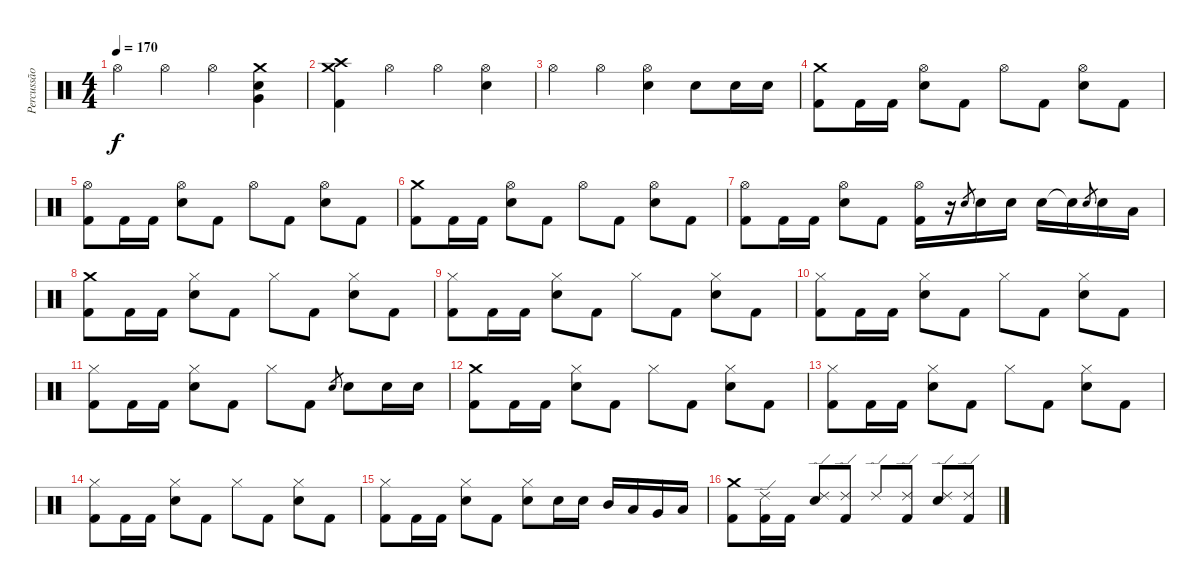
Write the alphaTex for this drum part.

\track ("Percussão" "Percussão") {instrument percussion}
\staff {score}
\articulation defaults
\ts (4 4)
\tempo 170
\clef neutral
\ks c "Hi-Hat (open)".4{dy f} "Hi-Hat (open)".4 "Hi-Hat (open)".4
("Crash medium (hit)" "Electric Snare (hit)" "Very Low Tom (hit)").4 |
("Crash medium (hit)" "Crash high (hit)" "Kick (hit) 2").4 "Hi-Hat (open)".4 "Hi-Hat (open)".4 ("Hi-Hat (open)" "Electric Snare (hit)").4 |
"Hi-Hat (open)".4 "Hi-Hat (open)".4 ("Hi-Hat (open)" "Electric Snare (hit)").4 "Electric Snare (hit)".8 "Electric Snare (hit)".16 "Electric Snare (hit)".16 |
("Crash medium (hit)" "Kick (hit) 2").8 "Kick (hit) 2".16 "Kick (hit) 2".16 ("Hi-Hat (open)" "Electric Snare (hit)").8 "Kick (hit) 2".8 "Hi-Hat (open)".8 "Kick (hit) 2".8 ("Hi-Hat (open)" "Electric Snare (hit)").8 "Kick (hit) 2".8 |
("Hi-Hat (open)" "Kick (hit) 2").8 "Kick (hit) 2".16 "Kick (hit) 2".16 ("Hi-Hat (open)" "Electric Snare (hit)").8 "Kick (hit) 2".8 "Hi-Hat (open)".8 "Kick (hit) 2".8 ("Hi-Hat (open)" "Electric Snare (hit)").8 "Kick (hit) 2".8 |
("Crash medium (hit)" "Kick (hit) 2").8 "Kick (hit) 2".16 "Kick (hit) 2".16 ("Hi-Hat (open)" "Electric Snare (hit)").8 "Kick (hit) 2".8 "Hi-Hat (open)".8 "Kick (hit) 2".8 ("Hi-Hat (open)" "Electric Snare (hit)").8 "Kick (hit) 2".8 |
("Hi-Hat (open)" "Kick (hit) 2").8 "Kick (hit) 2".16 "Kick (hit) 2".16 ("Hi-Hat (open)" "Electric Snare (hit)").8 "Kick (hit) 2".8 ("Hi-Hat (open)" "Kick (hit) 2").16 r.16 "Electric Snare (hit)".8{gr} "Electric Snare (hit)".16 "Electric Snare (hit)".16 "Electric Snare (hit)".16 "Electric Snare (hit)"{t}.16 "Electric Snare (hit)".8{gr} "Electric Snare (hit)".16 "Low Tom (hit)".16 |
("Crash medium (hit)" "Kick (hit) 2").8 "Kick (hit) 2".16 "Kick (hit) 2".16 ("Hi-Hat (closed)" "Electric Snare (hit)").8 "Kick (hit) 2".8 "Hi-Hat (closed)".8 "Kick (hit) 2".8 ("Hi-Hat (closed)" "Electric Snare (hit)").8 "Kick (hit) 2".8 |
("Hi-Hat (closed)" "Kick (hit) 2").8 "Kick (hit) 2".16 "Kick (hit) 2".16 ("Hi-Hat (closed)" "Electric Snare (hit)").8 "Kick (hit) 2".8 "Hi-Hat (closed)".8 "Kick (hit) 2".8 ("Hi-Hat (closed)" "Electric Snare (hit)").8 "Kick (hit) 2".8 |
("Hi-Hat (closed)" "Kick (hit) 2").8 "Kick (hit) 2".16 "Kick (hit) 2".16 ("Hi-Hat (closed)" "Electric Snare (hit)").8 "Kick (hit) 2".8 "Hi-Hat (closed)".8 "Kick (hit) 2".8 ("Hi-Hat (closed)" "Electric Snare (hit)").8 "Kick (hit) 2".8 |
("Hi-Hat (closed)" "Kick (hit) 2").8 "Kick (hit) 2".16 "Kick (hit) 2".16 ("Hi-Hat (closed)" "Electric Snare (hit)").8 "Kick (hit) 2".8 "Hi-Hat (closed)".8 "Kick (hit) 2".8 "Electric Snare (hit)".8{gr} "Electric Snare (hit)".8 "Electric Snare (hit)".16 "Electric Snare (hit)".16 |
("Crash medium (hit)" "Kick (hit) 2").8 "Kick (hit) 2".16 "Kick (hit) 2".16 ("Hi-Hat (closed)" "Electric Snare (hit)").8 "Kick (hit) 2".8 "Hi-Hat (closed)".8 "Kick (hit) 2".8 ("Hi-Hat (closed)" "Electric Snare (hit)").8 "Kick (hit) 2".8 |
("Hi-Hat (closed)" "Kick (hit) 2").8 "Kick (hit) 2".16 "Kick (hit) 2".16 ("Hi-Hat (closed)" "Electric Snare (hit)").8 "Kick (hit) 2".8 "Hi-Hat (closed)".8 "Kick (hit) 2".8 ("Hi-Hat (closed)" "Electric Snare (hit)").8 "Kick (hit) 2".8 |
("Hi-Hat (closed)" "Kick (hit) 2").8 "Kick (hit) 2".16 "Kick (hit) 2".16 ("Hi-Hat (closed)" "Electric Snare (hit)").8 "Kick (hit) 2".8 "Hi-Hat (closed)".8 "Kick (hit) 2".8 ("Hi-Hat (closed)" "Electric Snare (hit)").8 "Kick (hit) 2".8 |
("Hi-Hat (closed)" "Kick (hit) 2").8 "Kick (hit) 2".16 "Kick (hit) 2".16 ("Hi-Hat (closed)" "Electric Snare (hit)").8 "Kick (hit) 2".8 ("Hi-Hat (closed)" "Electric Snare (hit)").8 "Electric Snare (hit)".16 "Electric Snare (hit)".16 "Mid Tom (hit)".16 "Low Tom (hit)".16 "Very Low Tom (hit)".16 "Low Floor Tom (hit)".16 |
("Crash medium (hit)" "Kick (hit) 2").8 ("Ride (edge) 2" "Kick (hit) 2").16 "Kick (hit) 2".16 ("Ride (edge) 2" "Electric Snare (hit)").8 ("Ride (edge) 2" "Kick (hit) 2").8 "Ride (edge) 2".8 ("Ride (edge) 2" "Kick (hit) 2").8 ("Ride (edge) 2" "Electric Snare (hit)").8 ("Ride (edge) 2" "Kick (hit) 2").8
